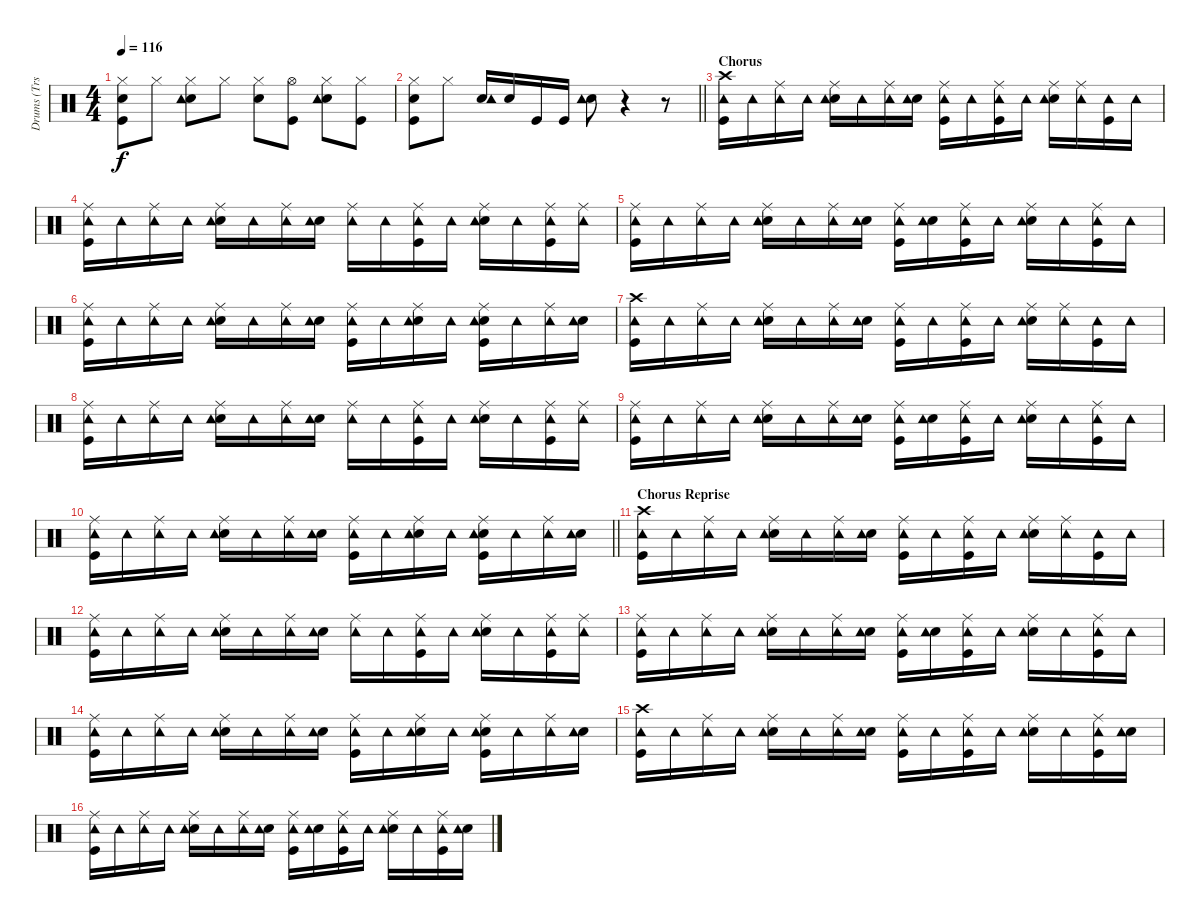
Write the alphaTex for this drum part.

\track ("Drums (Trs. 7-8A, 10A/7-8B, 10B, 12-13B)" "Drums (Trs") {mute instrument percussion}
\staff {score}
\articulation defaults
\ts (4 4)
\tempo 116
\clef neutral
\ks c
("Kick (hit)" "Hi-Hat (closed)" "Electric Snare (hit)").8{dy f} "Hi-Hat (closed)".8 ("Hi-Hat (closed)" "Electric Snare (hit)" "Tambourine (hit)").8 "Hi-Hat (closed)".8 ("Electric Snare (hit)" "Hi-Hat (closed)").8 ("Kick (hit)" "Hi-Hat (open)").8 ("Electric Snare (hit)" "Hi-Hat (closed)" "Tambourine (hit)").8 ("Hi-Hat (closed)" "Kick (hit)").8 |
\barLineRight lightlight
("Hi-Hat (closed)" "Electric Snare (hit)" "Kick (hit)").8 "Hi-Hat (closed)".8 ("Electric Snare (hit)" "Tambourine (hit)").16 "Electric Snare (hit)".16 "Kick (hit)".16 "Kick (hit)".16 ("Electric Snare (hit)" "Tambourine (hit)").8 r.4 r.8 |
\section ("" "Chorus")
("Kick (hit)" "Crash high (hit)" "Tambourine (hit)").16 "Tambourine (hit)".16 ("Ride (middle)" "Tambourine (hit)").16 "Tambourine (hit)".16 ("Ride (middle)" "Electric Snare (hit)" "Tambourine (hit)").16 "Tambourine (hit)".16 ("Ride (middle)" "Tambourine (hit)").16 ("Electric Snare (hit)" "Tambourine (hit)").16 ("Kick (hit)" "Ride (middle)" "Tambourine (hit)").16 "Tambourine (hit)".16 ("Kick (hit)" "Ride (middle)" "Tambourine (hit)").16 "Tambourine (hit)".16 ("Electric Snare (hit)" "Ride (middle)" "Tambourine (hit)").16 ("Ride (middle)" "Tambourine (hit)").16 ("Kick (hit)" "Tambourine (hit)").16 "Tambourine (hit)".16 |
("Ride (middle)" "Kick (hit)" "Tambourine (hit)").16 "Tambourine (hit)".16 ("Ride (middle)" "Tambourine (hit)").16 "Tambourine (hit)".16 ("Electric Snare (hit)" "Ride (middle)" "Tambourine (hit)").16 "Tambourine (hit)".16 ("Ride (middle)" "Tambourine (hit)").16 ("Electric Snare (hit)" "Tambourine (hit)").16 ("Ride (middle)" "Tambourine (hit)").16 "Tambourine (hit)".16 ("Ride (middle)" "Kick (hit)" "Tambourine (hit)").16 "Tambourine (hit)".16 ("Electric Snare (hit)" "Ride (middle)" "Tambourine (hit)").16 "Tambourine (hit)".16 ("Ride (middle)" "Kick (hit)" "Tambourine (hit)").16 ("Ride (middle)" "Tambourine (hit)").16 |
("Ride (middle)" "Kick (hit)" "Tambourine (hit)").16 "Tambourine (hit)".16 ("Ride (middle)" "Tambourine (hit)").16 "Tambourine (hit)".16 ("Ride (middle)" "Electric Snare (hit)" "Tambourine (hit)").16 "Tambourine (hit)".16 ("Ride (middle)" "Tambourine (hit)").16 ("Electric Snare (hit)" "Tambourine (hit)").16 ("Ride (middle)" "Kick (hit)" "Tambourine (hit)").16 ("Electric Snare (hit)" "Tambourine (hit)").16 ("Ride (middle)" "Kick (hit)" "Tambourine (hit)").16 "Tambourine (hit)".16 ("Electric Snare (hit)" "Ride (middle)" "Tambourine (hit)").16 "Tambourine (hit)".16 ("Ride (middle)" "Kick (hit)" "Tambourine (hit)").16 "Tambourine (hit)".16 |
("Ride (middle)" "Kick (hit)" "Tambourine (hit)").16 "Tambourine (hit)".16 ("Ride (middle)" "Tambourine (hit)").16 "Tambourine (hit)".16 ("Ride (middle)" "Electric Snare (hit)" "Tambourine (hit)").16 "Tambourine (hit)".16 ("Ride (middle)" "Tambourine (hit)").16 ("Electric Snare (hit)" "Tambourine (hit)").16 ("Ride (middle)" "Kick (hit)" "Tambourine (hit)").16 "Tambourine (hit)".16 ("Ride (middle)" "Electric Snare (hit)" "Tambourine (hit)").16 "Tambourine (hit)".16 ("Electric Snare (hit)" "Kick (hit)" "Ride (middle)" "Tambourine (hit)").16 "Tambourine (hit)".16 ("Ride (middle)" "Tambourine (hit)").16 ("Electric Snare (hit)" "Tambourine (hit)").16 |
("Kick (hit)" "Crash high (hit)" "Tambourine (hit)").16 "Tambourine (hit)".16 ("Ride (middle)" "Tambourine (hit)").16 "Tambourine (hit)".16 ("Ride (middle)" "Electric Snare (hit)" "Tambourine (hit)").16 "Tambourine (hit)".16 ("Ride (middle)" "Tambourine (hit)").16 ("Electric Snare (hit)" "Tambourine (hit)").16 ("Kick (hit)" "Ride (middle)" "Tambourine (hit)").16 "Tambourine (hit)".16 ("Kick (hit)" "Ride (middle)" "Tambourine (hit)").16 "Tambourine (hit)".16 ("Electric Snare (hit)" "Ride (middle)" "Tambourine (hit)").16 ("Ride (middle)" "Tambourine (hit)").16 ("Kick (hit)" "Tambourine (hit)").16 "Tambourine (hit)".16 |
("Ride (middle)" "Kick (hit)" "Tambourine (hit)").16 "Tambourine (hit)".16 ("Ride (middle)" "Tambourine (hit)").16 "Tambourine (hit)".16 ("Electric Snare (hit)" "Ride (middle)" "Tambourine (hit)").16 "Tambourine (hit)".16 ("Ride (middle)" "Tambourine (hit)").16 ("Electric Snare (hit)" "Tambourine (hit)").16 ("Ride (middle)" "Tambourine (hit)").16 "Tambourine (hit)".16 ("Ride (middle)" "Kick (hit)" "Tambourine (hit)").16 "Tambourine (hit)".16 ("Electric Snare (hit)" "Ride (middle)" "Tambourine (hit)").16 "Tambourine (hit)".16 ("Ride (middle)" "Kick (hit)" "Tambourine (hit)").16 ("Ride (middle)" "Tambourine (hit)").16 |
("Ride (middle)" "Kick (hit)" "Tambourine (hit)").16 "Tambourine (hit)".16 ("Ride (middle)" "Tambourine (hit)").16 "Tambourine (hit)".16 ("Ride (middle)" "Electric Snare (hit)" "Tambourine (hit)").16 "Tambourine (hit)".16 ("Ride (middle)" "Tambourine (hit)").16 ("Electric Snare (hit)" "Tambourine (hit)").16 ("Ride (middle)" "Kick (hit)" "Tambourine (hit)").16 ("Electric Snare (hit)" "Tambourine (hit)").16 ("Ride (middle)" "Kick (hit)" "Tambourine (hit)").16 "Tambourine (hit)".16 ("Electric Snare (hit)" "Ride (middle)" "Tambourine (hit)").16 "Tambourine (hit)".16 ("Ride (middle)" "Kick (hit)" "Tambourine (hit)").16 "Tambourine (hit)".16 |
\barLineRight lightlight
("Ride (middle)" "Kick (hit)" "Tambourine (hit)").16 "Tambourine (hit)".16 ("Ride (middle)" "Tambourine (hit)").16 "Tambourine (hit)".16 ("Ride (middle)" "Electric Snare (hit)" "Tambourine (hit)").16 "Tambourine (hit)".16 ("Ride (middle)" "Tambourine (hit)").16 ("Electric Snare (hit)" "Tambourine (hit)").16 ("Ride (middle)" "Kick (hit)" "Tambourine (hit)").16 "Tambourine (hit)".16 ("Ride (middle)" "Electric Snare (hit)" "Tambourine (hit)").16 "Tambourine (hit)".16 ("Electric Snare (hit)" "Kick (hit)" "Ride (middle)" "Tambourine (hit)").16 "Tambourine (hit)".16 ("Ride (middle)" "Tambourine (hit)").16 ("Electric Snare (hit)" "Tambourine (hit)").16 |
\section ("" "Chorus Reprise")
("Kick (hit)" "Crash high (hit)" "Tambourine (hit)").16 "Tambourine (hit)".16 ("Ride (middle)" "Tambourine (hit)").16 "Tambourine (hit)".16 ("Ride (middle)" "Electric Snare (hit)" "Tambourine (hit)").16 "Tambourine (hit)".16 ("Ride (middle)" "Tambourine (hit)").16 ("Electric Snare (hit)" "Tambourine (hit)").16 ("Kick (hit)" "Ride (middle)" "Tambourine (hit)").16 "Tambourine (hit)".16 ("Kick (hit)" "Ride (middle)" "Tambourine (hit)").16 "Tambourine (hit)".16 ("Electric Snare (hit)" "Ride (middle)" "Tambourine (hit)").16 ("Ride (middle)" "Tambourine (hit)").16 ("Kick (hit)" "Tambourine (hit)").16 "Tambourine (hit)".16 |
("Ride (middle)" "Kick (hit)" "Tambourine (hit)").16 "Tambourine (hit)".16 ("Ride (middle)" "Tambourine (hit)").16 "Tambourine (hit)".16 ("Electric Snare (hit)" "Ride (middle)" "Tambourine (hit)").16 "Tambourine (hit)".16 ("Ride (middle)" "Tambourine (hit)").16 ("Electric Snare (hit)" "Tambourine (hit)").16 ("Ride (middle)" "Tambourine (hit)").16 "Tambourine (hit)".16 ("Ride (middle)" "Kick (hit)" "Tambourine (hit)").16 "Tambourine (hit)".16 ("Electric Snare (hit)" "Ride (middle)" "Tambourine (hit)").16 "Tambourine (hit)".16 ("Ride (middle)" "Kick (hit)" "Tambourine (hit)").16 ("Ride (middle)" "Tambourine (hit)").16 |
("Ride (middle)" "Kick (hit)" "Tambourine (hit)").16 "Tambourine (hit)".16 ("Ride (middle)" "Tambourine (hit)").16 "Tambourine (hit)".16 ("Ride (middle)" "Electric Snare (hit)" "Tambourine (hit)").16 "Tambourine (hit)".16 ("Ride (middle)" "Tambourine (hit)").16 ("Electric Snare (hit)" "Tambourine (hit)").16 ("Ride (middle)" "Kick (hit)" "Tambourine (hit)").16 ("Electric Snare (hit)" "Tambourine (hit)").16 ("Ride (middle)" "Kick (hit)" "Tambourine (hit)").16 "Tambourine (hit)".16 ("Electric Snare (hit)" "Ride (middle)" "Tambourine (hit)").16 "Tambourine (hit)".16 ("Ride (middle)" "Kick (hit)" "Tambourine (hit)").16 "Tambourine (hit)".16 |
("Ride (middle)" "Kick (hit)" "Tambourine (hit)").16 "Tambourine (hit)".16 ("Ride (middle)" "Tambourine (hit)").16 "Tambourine (hit)".16 ("Ride (middle)" "Electric Snare (hit)" "Tambourine (hit)").16 "Tambourine (hit)".16 ("Ride (middle)" "Tambourine (hit)").16 ("Electric Snare (hit)" "Tambourine (hit)").16 ("Ride (middle)" "Kick (hit)" "Tambourine (hit)").16 "Tambourine (hit)".16 ("Ride (middle)" "Electric Snare (hit)" "Tambourine (hit)").16 "Tambourine (hit)".16 ("Electric Snare (hit)" "Kick (hit)" "Ride (middle)" "Tambourine (hit)").16 "Tambourine (hit)".16 ("Ride (middle)" "Tambourine (hit)").16 ("Electric Snare (hit)" "Tambourine (hit)").16 |
("Crash high (hit)" "Kick (hit)" "Tambourine (hit)").16 "Tambourine (hit)".16 ("Ride (middle)" "Tambourine (hit)").16 "Tambourine (hit)".16 ("Ride (middle)" "Electric Snare (hit)" "Tambourine (hit)").16 "Tambourine (hit)".16 ("Ride (middle)" "Tambourine (hit)").16 ("Electric Snare (hit)" "Tambourine (hit)").16 ("Kick (hit)" "Ride (middle)" "Tambourine (hit)").16 "Tambourine (hit)".16 ("Kick (hit)" "Ride (middle)" "Tambourine (hit)").16 "Tambourine (hit)".16 ("Electric Snare (hit)" "Ride (middle)" "Tambourine (hit)").16 "Tambourine (hit)".16 ("Ride (middle)" "Kick (hit)" "Tambourine (hit)").16 ("Electric Snare (hit)" "Tambourine (hit)").16 |
("Kick (hit)" "Ride (middle)" "Tambourine (hit)").16 "Tambourine (hit)".16 ("Ride (middle)" "Tambourine (hit)").16 "Tambourine (hit)".16 ("Ride (middle)" "Electric Snare (hit)" "Tambourine (hit)").16 "Tambourine (hit)".16 ("Ride (middle)" "Tambourine (hit)").16 ("Electric Snare (hit)" "Tambourine (hit)").16 ("Ride (middle)" "Kick (hit)" "Tambourine (hit)").16 ("Electric Snare (hit)" "Tambourine (hit)").16 ("Ride (middle)" "Kick (hit)" "Tambourine (hit)").16 "Tambourine (hit)".16 ("Ride (middle)" "Electric Snare (hit)" "Tambourine (hit)").16 "Tambourine (hit)".16 ("Ride (middle)" "Kick (hit)" "Tambourine (hit)").16 ("Electric Snare (hit)" "Tambourine (hit)").16
